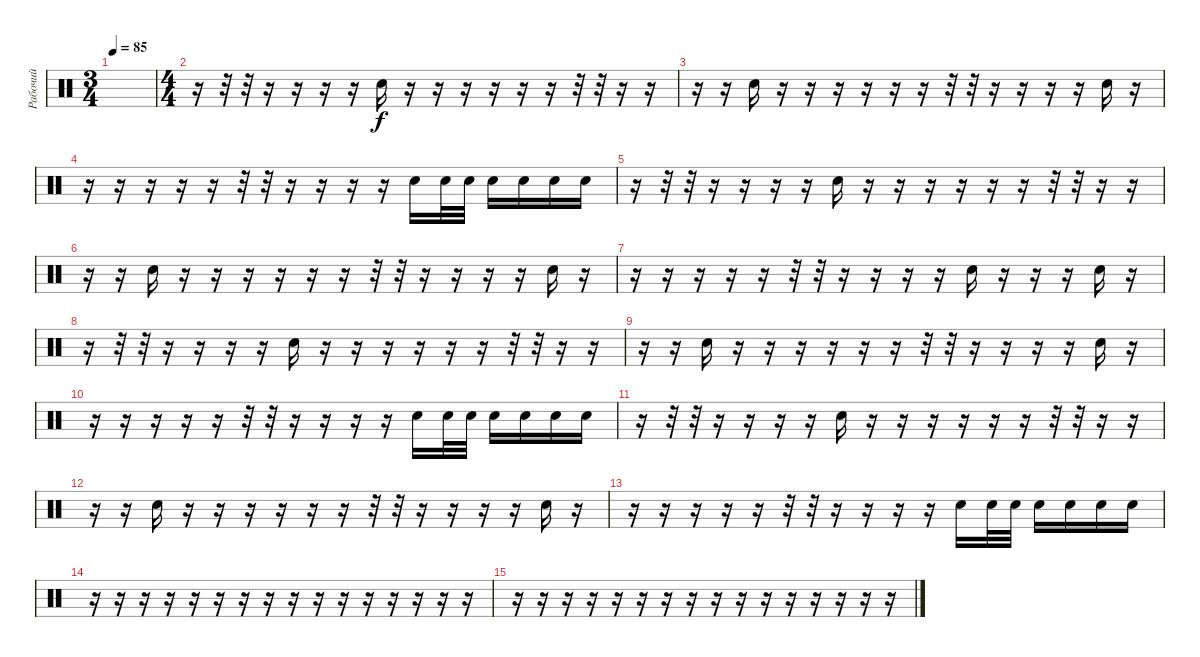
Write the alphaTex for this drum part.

\track ("Рабочий" "Рабочий") {instrument percussion}
\staff {score}
\articulation defaults
\ts (3 4)
\tempo 85
\clef neutral
\ks c
|
\ts (4 4)
r.16 r.32 r.32 r.16 r.16 r.16 r.16 "Snare (hit) 2".16 r.16 r.16 r.16 r.16 r.16 r.16 r.32 r.32 r.16 r.16 |
r.16 r.16 "Snare (hit) 2".16 r.16 r.16 r.16 r.16 r.16 r.16 r.32 r.32 r.16 r.16 r.16 r.16 "Snare (hit) 2".16 r.16 |
r.16 r.16 r.16 r.16 r.16 r.32 r.32 r.16 r.16 r.16 r.16 "Snare (hit) 2".16 "Snare (hit) 2".32 "Snare (hit) 2".32 "Snare (hit) 2".16 "Snare (hit) 2".16 "Snare (hit) 2".16 "Snare (hit) 2".16 |
r.16 r.32 r.32 r.16 r.16 r.16 r.16 "Snare (hit) 2".16 r.16 r.16 r.16 r.16 r.16 r.16 r.32 r.32 r.16 r.16 |
r.16 r.16 "Snare (hit) 2".16 r.16 r.16 r.16 r.16 r.16 r.16 r.32 r.32 r.16 r.16 r.16 r.16 "Snare (hit) 2".16 r.16 |
r.16 r.16 r.16 r.16 r.16 r.32 r.32 r.16 r.16 r.16 r.16 "Snare (hit) 2".16 r.16 r.16 r.16 "Snare (hit) 2".16 r.16 |
r.16 r.32 r.32 r.16 r.16 r.16 r.16 "Snare (hit) 2".16 r.16 r.16 r.16 r.16 r.16 r.16 r.32 r.32 r.16 r.16 |
r.16 r.16 "Snare (hit) 2".16 r.16 r.16 r.16 r.16 r.16 r.16 r.32 r.32 r.16 r.16 r.16 r.16 "Snare (hit) 2".16 r.16 |
r.16 r.16 r.16 r.16 r.16 r.32 r.32 r.16 r.16 r.16 r.16 "Snare (hit) 2".16 "Snare (hit) 2".32 "Snare (hit) 2".32 "Snare (hit) 2".16 "Snare (hit) 2".16 "Snare (hit) 2".16 "Snare (hit) 2".16 |
r.16 r.32 r.32 r.16 r.16 r.16 r.16 "Snare (hit) 2".16 r.16 r.16 r.16 r.16 r.16 r.16 r.32 r.32 r.16 r.16 |
r.16 r.16 "Snare (hit) 2".16 r.16 r.16 r.16 r.16 r.16 r.16 r.32 r.32 r.16 r.16 r.16 r.16 "Snare (hit) 2".16 r.16 |
r.16 r.16 r.16 r.16 r.16 r.32 r.32 r.16 r.16 r.16 r.16 "Snare (hit) 2".16 "Snare (hit) 2".32 "Snare (hit) 2".32 "Snare (hit) 2".16 "Snare (hit) 2".16 "Snare (hit) 2".16 "Snare (hit) 2".16 |
r.16 r.16 r.16 r.16 r.16 r.16 r.16 r.16 r.16 r.16 r.16 r.16 r.16 r.16 r.16 r.16 |
r.16 r.16 r.16 r.16 r.16 r.16 r.16 r.16 r.16 r.16 r.16 r.16 r.16 r.16 r.16 r.16
